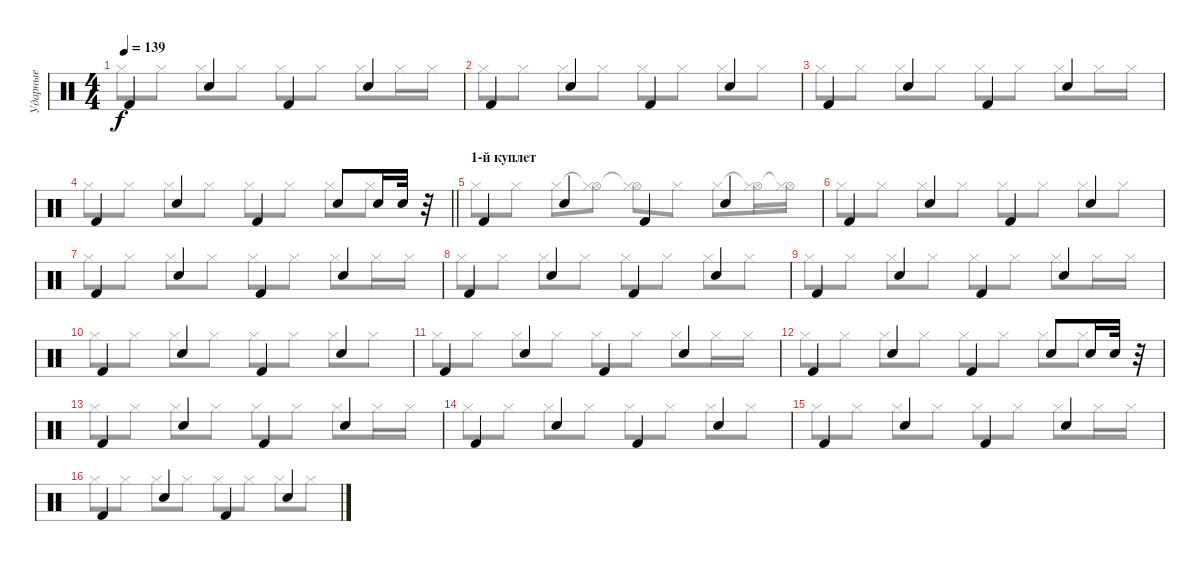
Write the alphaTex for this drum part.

\track ("Ударные" "Ударные") {instrument percussion}
\staff {score}
\articulation defaults
\voice
\ts (4 4)
\tempo 139
\clef neutral
\ks c "Kick (hit) 2".4{dy f} "Snare (hit) 2".4 "Kick (hit) 2".4 "Snare (hit) 2".4
|
"Kick (hit) 2".4 "Snare (hit) 2".4 "Kick (hit) 2".4 "Snare (hit) 2".4 |
"Kick (hit) 2".4 "Snare (hit) 2".4 "Kick (hit) 2".4 "Snare (hit) 2".4 |
\barLineRight lightlight "Kick (hit) 2".4 "Snare (hit) 2".4 "Kick (hit) 2".4 "Snare (hit) 2".8 "Snare (hit) 2".16 "Snare (hit) 2".32
r.32 |
\section ("" "1-й куплет")
"Kick (hit) 2".4 "Snare (hit) 2".4 "Kick (hit) 2".4 "Snare (hit) 2".4 |
"Kick (hit) 2".4 "Snare (hit) 2".4 "Kick (hit) 2".4 "Snare (hit) 2".4 |
"Kick (hit) 2".4 "Snare (hit) 2".4 "Kick (hit) 2".4 "Snare (hit) 2".4 |
"Kick (hit) 2".4 "Snare (hit) 2".4 "Kick (hit) 2".4 "Snare (hit) 2".4 |
"Kick (hit) 2".4 "Snare (hit) 2".4 "Kick (hit) 2".4 "Snare (hit) 2".4 |
"Kick (hit) 2".4 "Snare (hit) 2".4 "Kick (hit) 2".4 "Snare (hit) 2".4 |
"Kick (hit) 2".4 "Snare (hit) 2".4 "Kick (hit) 2".4 "Snare (hit) 2".4 |
"Kick (hit) 2".4 "Snare (hit) 2".4 "Kick (hit) 2".4 "Snare (hit) 2".8 "Snare (hit) 2".16 "Snare (hit) 2".32 r.32 |
"Kick (hit) 2".4 "Snare (hit) 2".4 "Kick (hit) 2".4 "Snare (hit) 2".4 |
"Kick (hit) 2".4 "Snare (hit) 2".4 "Kick (hit) 2".4 "Snare (hit) 2".4 |
"Kick (hit) 2".4 "Snare (hit) 2".4 "Kick (hit) 2".4 "Snare (hit) 2".4 |
"Kick (hit) 2".4 "Snare (hit) 2".4 "Kick (hit) 2".4 "Snare (hit) 2".4
\voice
\clef neutral
\ottava regular
\simile none
\ks c "Hi-Hat (closed)".8{dy f} "Hi-Hat (closed)".8 "Hi-Hat (closed)".8 "Hi-Hat (closed)".8 "Hi-Hat (closed)".8 "Hi-Hat (closed)".8 "Hi-Hat (closed)".8 "Hi-Hat (closed)".16 "Hi-Hat (closed)".16
|
"Hi-Hat (closed)".8 "Hi-Hat (closed)".8 "Hi-Hat (closed)".8 "Hi-Hat (closed)".8 "Hi-Hat (closed)".8 "Hi-Hat (closed)".8 "Hi-Hat (closed)".8 "Hi-Hat (closed)".8 |
"Hi-Hat (closed)".8 "Hi-Hat (closed)".8 "Hi-Hat (closed)".8 "Hi-Hat (closed)".8 "Hi-Hat (closed)".8 "Hi-Hat (closed)".8 "Hi-Hat (closed)".8 "Hi-Hat (closed)".16 "Hi-Hat (closed)".16 |
\barLineRight lightlight "Hi-Hat (closed)".8 "Hi-Hat (closed)".8 "Hi-Hat (closed)".8 "Hi-Hat (closed)".8 "Hi-Hat (closed)".8 "Hi-Hat (closed)".8 "Hi-Hat (closed)".8 "Hi-Hat (closed)".8
|
"Hi-Hat (closed)".8 "Hi-Hat (closed)".8 "Hi-Hat (closed)".8 ("Hi-Hat (open)"{t} "Hi-Hat (closed)").8 ("Hi-Hat (open)"{t} "Hi-Hat (closed)").8 "Hi-Hat (closed)".8 "Hi-Hat (closed)".8 ("Hi-Hat (open)"{t} "Hi-Hat (closed)").16 ("Hi-Hat (open)"{t} "Hi-Hat (closed)").16 |
"Hi-Hat (closed)".8 "Hi-Hat (closed)".8 "Hi-Hat (closed)".8 "Hi-Hat (closed)".8 "Hi-Hat (closed)".8 "Hi-Hat (closed)".8 "Hi-Hat (closed)".8 "Hi-Hat (closed)".8 |
"Hi-Hat (closed)".8 "Hi-Hat (closed)".8 "Hi-Hat (closed)".8 "Hi-Hat (closed)".8 "Hi-Hat (closed)".8 "Hi-Hat (closed)".8 "Hi-Hat (closed)".8 "Hi-Hat (closed)".16 "Hi-Hat (closed)".16 |
"Hi-Hat (closed)".8 "Hi-Hat (closed)".8 "Hi-Hat (closed)".8 "Hi-Hat (closed)".8 "Hi-Hat (closed)".8 "Hi-Hat (closed)".8 "Hi-Hat (closed)".8 "Hi-Hat (closed)".8 |
"Hi-Hat (closed)".8 "Hi-Hat (closed)".8 "Hi-Hat (closed)".8 "Hi-Hat (closed)".8 "Hi-Hat (closed)".8 "Hi-Hat (closed)".8 "Hi-Hat (closed)".8 "Hi-Hat (closed)".16 "Hi-Hat (closed)".16 |
"Hi-Hat (closed)".8 "Hi-Hat (closed)".8 "Hi-Hat (closed)".8 "Hi-Hat (closed)".8 "Hi-Hat (closed)".8 "Hi-Hat (closed)".8 "Hi-Hat (closed)".8 "Hi-Hat (closed)".8 |
"Hi-Hat (closed)".8 "Hi-Hat (closed)".8 "Hi-Hat (closed)".8 "Hi-Hat (closed)".8 "Hi-Hat (closed)".8 "Hi-Hat (closed)".8 "Hi-Hat (closed)".8 "Hi-Hat (closed)".16 "Hi-Hat (closed)".16 |
"Hi-Hat (closed)".8 "Hi-Hat (closed)".8 "Hi-Hat (closed)".8 "Hi-Hat (closed)".8 "Hi-Hat (closed)".8 "Hi-Hat (closed)".8 "Hi-Hat (closed)".8 "Hi-Hat (closed)".8 |
"Hi-Hat (closed)".8 "Hi-Hat (closed)".8 "Hi-Hat (closed)".8 "Hi-Hat (closed)".8 "Hi-Hat (closed)".8 "Hi-Hat (closed)".8 "Hi-Hat (closed)".8 "Hi-Hat (closed)".16 "Hi-Hat (closed)".16 |
"Hi-Hat (closed)".8 "Hi-Hat (closed)".8 "Hi-Hat (closed)".8 "Hi-Hat (closed)".8 "Hi-Hat (closed)".8 "Hi-Hat (closed)".8 "Hi-Hat (closed)".8 "Hi-Hat (closed)".8 |
"Hi-Hat (closed)".8 "Hi-Hat (closed)".8 "Hi-Hat (closed)".8 "Hi-Hat (closed)".8 "Hi-Hat (closed)".8 "Hi-Hat (closed)".8 "Hi-Hat (closed)".8 "Hi-Hat (closed)".16 "Hi-Hat (closed)".16 |
"Hi-Hat (closed)".8 "Hi-Hat (closed)".8 "Hi-Hat (closed)".8 "Hi-Hat (closed)".8 "Hi-Hat (closed)".8 "Hi-Hat (closed)".8 "Hi-Hat (closed)".8 "Hi-Hat (closed)".8
